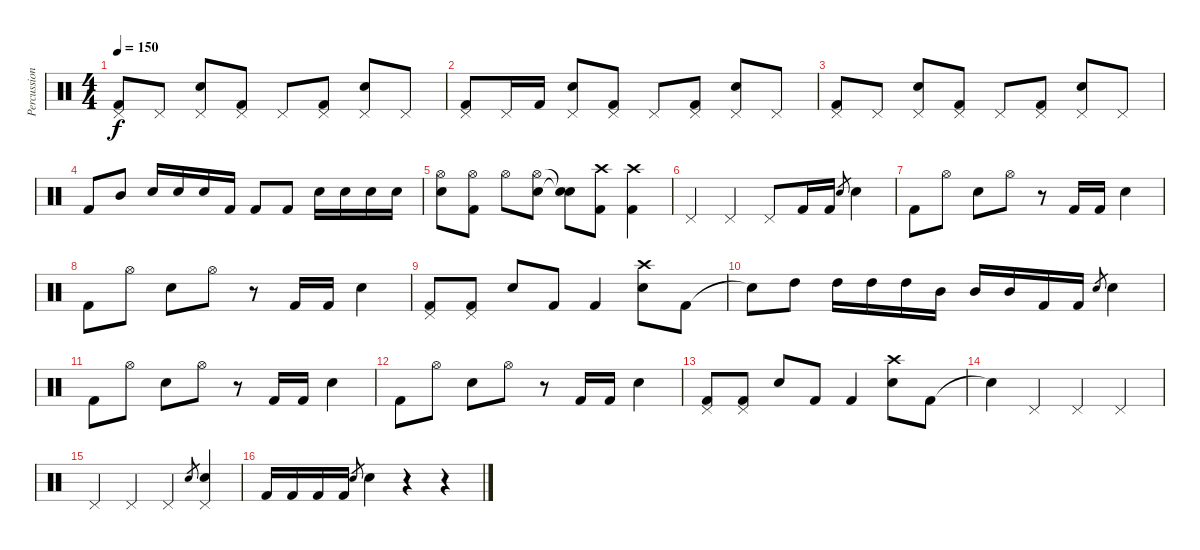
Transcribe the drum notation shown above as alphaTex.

\track ("Percussion" "Percussion") {instrument percussion}
\staff {score}
\articulation defaults
\ts (4 4)
\tempo 150
\clef neutral
\ks c
("Pedal Hi-Hat (hit)" "Kick (hit) 2").8{dy f} "Pedal Hi-Hat (hit)".8 ("Pedal Hi-Hat (hit)" "Snare (hit) 2").8 ("Pedal Hi-Hat (hit)" "Kick (hit) 2").8 "Pedal Hi-Hat (hit)".8 ("Pedal Hi-Hat (hit)" "Kick (hit) 2").8 ("Pedal Hi-Hat (hit)" "Snare (hit) 2").8 "Pedal Hi-Hat (hit)".8 |
("Pedal Hi-Hat (hit)" "Kick (hit) 2").8 "Pedal Hi-Hat (hit)".16 "Kick (hit) 2".16 ("Pedal Hi-Hat (hit)" "Snare (hit) 2").8 ("Pedal Hi-Hat (hit)" "Kick (hit) 2").8 "Pedal Hi-Hat (hit)".8 ("Pedal Hi-Hat (hit)" "Kick (hit) 2").8 ("Pedal Hi-Hat (hit)" "Snare (hit) 2").8 "Pedal Hi-Hat (hit)".8 |
("Pedal Hi-Hat (hit)" "Kick (hit) 2").8 "Pedal Hi-Hat (hit)".8 ("Pedal Hi-Hat (hit)" "Snare (hit) 2").8 ("Pedal Hi-Hat (hit)" "Kick (hit) 2").8 "Pedal Hi-Hat (hit)".8 ("Pedal Hi-Hat (hit)" "Kick (hit) 2").8 ("Pedal Hi-Hat (hit)" "Snare (hit) 2").8 "Pedal Hi-Hat (hit)".8 |
"Kick (hit) 2".8 "Mid Tom (hit)".8 "Snare (hit) 2".16 "Snare (hit) 2".16 "Snare (hit) 2".16 "Kick (hit) 2".16 "Kick (hit) 2".8 "Kick (hit) 2".8 "Snare (hit) 2".16 "Snare (hit) 2".16 "Snare (hit) 2".16 "Snare (hit) 2".16 |
("Hi-Hat (open)" "Snare (hit) 2").8 ("Hi-Hat (open)" "Kick (hit) 2").8 "Hi-Hat (open)".8 ("Hi-Hat (open)" "Snare (hit) 2").8 ("Snare (hit)"{t} "Snare (hit)"{t}).8 ("Crash high (hit)" "Kick (hit) 2").8 ("Crash high (hit)" "Kick (hit) 2").4 |
"Pedal Hi-Hat (hit)".4 "Pedal Hi-Hat (hit)".4 "Pedal Hi-Hat (hit)".8 "Kick (hit) 2".16 "Kick (hit) 2".16 "Snare (hit) 2".8{gr} "Snare (hit) 2".4 |
"Kick (hit) 2".8 "Hi-Hat (open)".8 "Snare (hit) 2".8 "Hi-Hat (open)".8 r.8 "Kick (hit) 2".16 "Kick (hit) 2".16 "Snare (hit) 2".4 |
"Kick (hit) 2".8 "Hi-Hat (open)".8 "Snare (hit) 2".8 "Hi-Hat (open)".8 r.8 "Kick (hit) 2".16 "Kick (hit) 2".16 "Snare (hit) 2".4 |
("Pedal Hi-Hat (hit)" "Kick (hit) 2").8 ("Pedal Hi-Hat (hit)" "Kick (hit) 2").8 "Snare (hit) 2".8 "Kick (hit) 2".8 "Kick (hit) 2".4 ("Crash high (hit)" "Snare (hit) 2").8 "Kick (hit) 2".8 |
"Snare (hit)"{t}.8 "High Tom (hit)".8 "High Tom (hit)".16 "High Tom (hit)".16 "High Tom (hit)".16 "Mid Tom (hit)".16 "Mid Tom (hit)".16 "Mid Tom (hit)".16 "Kick (hit) 2".16 "Kick (hit) 2".16 "Snare (hit) 2".8{gr} "Snare (hit) 2".4 |
"Kick (hit) 2".8 "Hi-Hat (open)".8 "Snare (hit) 2".8 "Hi-Hat (open)".8 r.8 "Kick (hit) 2".16 "Kick (hit) 2".16 "Snare (hit) 2".4 |
"Kick (hit) 2".8 "Hi-Hat (open)".8 "Snare (hit) 2".8 "Hi-Hat (open)".8 r.8 "Kick (hit) 2".16 "Kick (hit) 2".16 "Snare (hit) 2".4 |
("Pedal Hi-Hat (hit)" "Kick (hit) 2").8 ("Pedal Hi-Hat (hit)" "Kick (hit) 2").8 "Snare (hit) 2".8 "Kick (hit) 2".8 "Kick (hit) 2".4 ("Crash high (hit)" "Snare (hit) 2").8 "Kick (hit) 2".8 |
"Snare (hit)"{t}.4 "Pedal Hi-Hat (hit)".4 "Pedal Hi-Hat (hit)".4 "Pedal Hi-Hat (hit)".4 |
"Pedal Hi-Hat (hit)".4 "Pedal Hi-Hat (hit)".4 "Pedal Hi-Hat (hit)".4 "Snare (hit) 2".8{gr} ("Pedal Hi-Hat (hit)" "Snare (hit) 2").4 |
"Kick (hit) 2".16 "Kick (hit) 2".16 "Kick (hit) 2".16 "Kick (hit) 2".16 "Snare (hit) 2".8{gr} "Snare (hit) 2".4 r.4 r.4
